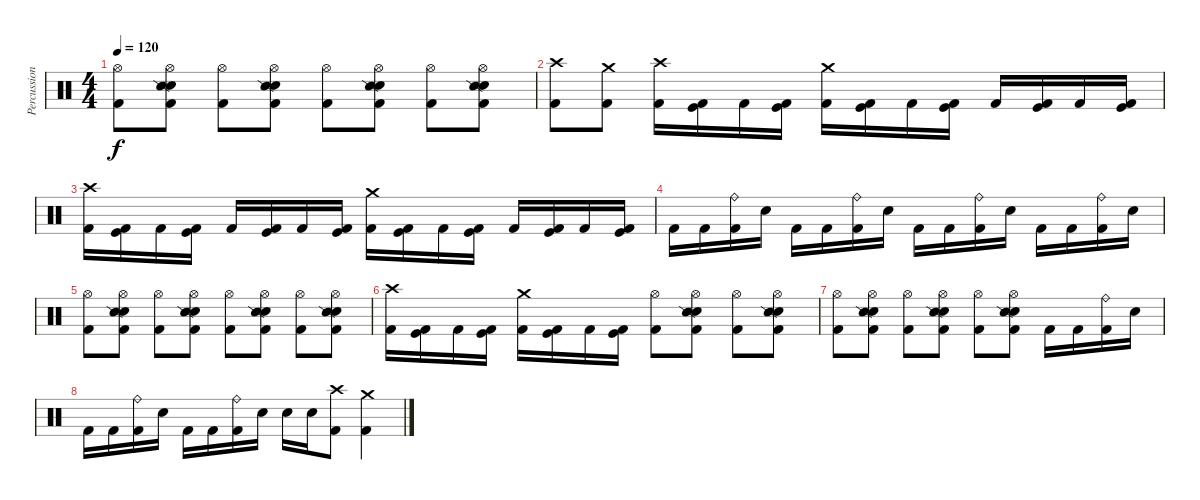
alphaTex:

\track ("Percussion" "Percussion") {instrument percussion}
\staff {score}
\articulation defaults
\ts (4 4)
\tempo 120
\clef neutral
\ks c
("Hi-Hat (open)" "Kick (hit) 2").8{dy f} ("Hi-Hat (open)" "Electric Snare (hit)" "Snare (side stick) 2" "Kick (hit) 2").8 ("Hi-Hat (open)" "Kick (hit) 2").8 ("Hi-Hat (open)" "Electric Snare (hit)" "Snare (side stick) 2" "Kick (hit) 2").8 ("Hi-Hat (open)" "Kick (hit) 2").8 ("Hi-Hat (open)" "Electric Snare (hit)" "Snare (side stick) 2" "Kick (hit) 2").8 ("Hi-Hat (open)" "Kick (hit) 2").8 ("Hi-Hat (open)" "Electric Snare (hit)" "Snare (side stick) 2" "Kick (hit) 2").8 |
("Crash high (hit)" "Kick (hit) 2").8 ("Crash medium (hit)" "Kick (hit) 2").8 ("Crash high (hit)" "Kick (hit) 2").16 ("Kick (hit)" "Kick (hit) 2").16 "Kick (hit) 2".16 ("Kick (hit)" "Kick (hit) 2").16 ("Crash medium (hit)" "Kick (hit) 2").16 ("Kick (hit)" "Kick (hit) 2").16 "Kick (hit) 2".16 ("Kick (hit)" "Kick (hit) 2").16 "Kick (hit) 2".16 ("Kick (hit)" "Kick (hit) 2").16 "Kick (hit) 2".16 ("Kick (hit)" "Kick (hit) 2").16 |
("Crash high (hit)" "Kick (hit) 2").16 ("Kick (hit)" "Kick (hit) 2").16 "Kick (hit) 2".16 ("Kick (hit)" "Kick (hit) 2").16 "Kick (hit) 2".16 ("Kick (hit)" "Kick (hit) 2").16 "Kick (hit) 2".16 ("Kick (hit)" "Kick (hit) 2").16 ("Crash medium (hit)" "Kick (hit) 2").16 ("Kick (hit)" "Kick (hit) 2").16 "Kick (hit) 2".16 ("Kick (hit)" "Kick (hit) 2").16 "Kick (hit) 2".16 ("Kick (hit)" "Kick (hit) 2").16 "Kick (hit) 2".16 ("Kick (hit)" "Kick (hit) 2").16 |
"Kick (hit) 2".16 "Kick (hit) 2".16 ("Ride (bell)" "Kick (hit) 2").16 "Electric Snare (hit)".16 "Kick (hit) 2".16 "Kick (hit) 2".16 ("Ride (bell)" "Kick (hit) 2").16 "Electric Snare (hit)".16 "Kick (hit) 2".16 "Kick (hit) 2".16 ("Ride (bell)" "Kick (hit) 2").16 "Electric Snare (hit)".16 "Kick (hit) 2".16 "Kick (hit) 2".16 ("Ride (bell)" "Kick (hit) 2").16 "Electric Snare (hit)".16 |
("Hi-Hat (open)" "Kick (hit) 2").8 ("Hi-Hat (open)" "Electric Snare (hit)" "Snare (side stick) 2" "Kick (hit) 2").8 ("Hi-Hat (open)" "Kick (hit) 2").8 ("Hi-Hat (open)" "Electric Snare (hit)" "Snare (side stick) 2" "Kick (hit) 2").8 ("Hi-Hat (open)" "Kick (hit) 2").8 ("Hi-Hat (open)" "Electric Snare (hit)" "Snare (side stick) 2" "Kick (hit) 2").8 ("Hi-Hat (open)" "Kick (hit) 2").8 ("Hi-Hat (open)" "Electric Snare (hit)" "Snare (side stick) 2" "Kick (hit) 2").8 |
("Crash high (hit)" "Kick (hit) 2").16 ("Kick (hit)" "Kick (hit) 2").16 "Kick (hit) 2".16 ("Kick (hit)" "Kick (hit) 2").16 ("Crash medium (hit)" "Kick (hit) 2").16 ("Kick (hit)" "Kick (hit) 2").16 "Kick (hit) 2".16 ("Kick (hit)" "Kick (hit) 2").16 ("Hi-Hat (open)" "Kick (hit) 2").8 ("Hi-Hat (open)" "Electric Snare (hit)" "Snare (side stick) 2" "Kick (hit) 2").8 ("Hi-Hat (open)" "Kick (hit) 2").8 ("Hi-Hat (open)" "Electric Snare (hit)" "Snare (side stick) 2" "Kick (hit) 2").8 |
("Hi-Hat (open)" "Kick (hit) 2").8 ("Hi-Hat (open)" "Electric Snare (hit)" "Snare (side stick) 2" "Kick (hit) 2").8 ("Hi-Hat (open)" "Kick (hit) 2").8 ("Hi-Hat (open)" "Electric Snare (hit)" "Snare (side stick) 2" "Kick (hit) 2").8 ("Hi-Hat (open)" "Kick (hit) 2").8 ("Hi-Hat (open)" "Electric Snare (hit)" "Snare (side stick) 2" "Kick (hit) 2").8 "Kick (hit) 2".16 "Kick (hit) 2".16 ("Ride (bell)" "Kick (hit) 2").16 "Electric Snare (hit)".16 |
"Kick (hit) 2".16 "Kick (hit) 2".16 ("Ride (bell)" "Kick (hit) 2").16 "Electric Snare (hit)".16 "Kick (hit) 2".16 "Kick (hit) 2".16 ("Ride (bell)" "Kick (hit) 2").16 "Electric Snare (hit)".16 "Electric Snare (hit)".16 "Electric Snare (hit)".16 ("Crash high (hit)" "Kick (hit) 2").8 ("Crash medium (hit)" "Kick (hit) 2").4
